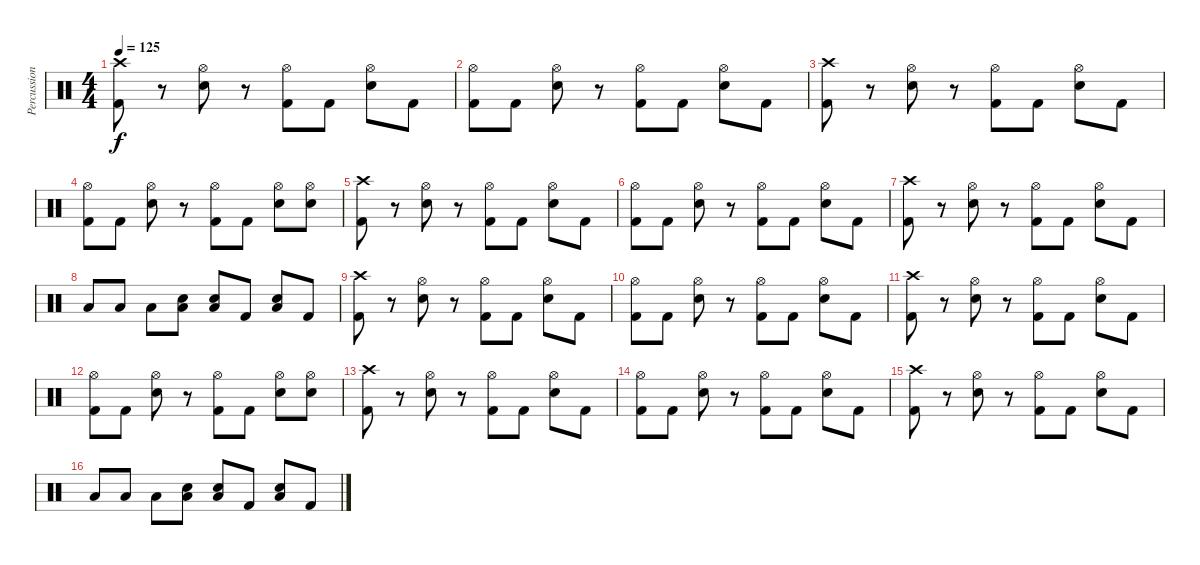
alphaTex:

\track ("Percussion" "Percussion") {instrument percussion}
\staff {score}
\articulation defaults
\ts (4 4)
\tempo 125
\clef neutral
\ks c
("Crash high (hit)" "Kick (hit) 2").8{dy f} r.8 ("Hi-Hat (open)" "Snare (hit) 2").8 r.8 ("Hi-Hat (open)" "Kick (hit) 2").8 "Kick (hit) 2".8 ("Hi-Hat (open)" "Snare (hit) 2").8 "Kick (hit) 2".8 |
("Hi-Hat (open)" "Kick (hit) 2").8 "Kick (hit) 2".8 ("Hi-Hat (open)" "Snare (hit) 2").8 r.8 ("Hi-Hat (open)" "Kick (hit) 2").8 "Kick (hit) 2".8 ("Hi-Hat (open)" "Snare (hit) 2").8 "Kick (hit) 2".8 |
("Crash high (hit)" "Kick (hit) 2").8 r.8 ("Hi-Hat (open)" "Snare (hit) 2").8 r.8 ("Hi-Hat (open)" "Kick (hit) 2").8 "Kick (hit) 2".8 ("Hi-Hat (open)" "Snare (hit) 2").8 "Kick (hit) 2".8 |
("Hi-Hat (open)" "Kick (hit) 2").8 "Kick (hit) 2".8 ("Hi-Hat (open)" "Snare (hit) 2").8 r.8 ("Hi-Hat (open)" "Kick (hit) 2").8 "Kick (hit) 2".8 ("Hi-Hat (open)" "Snare (hit) 2").8 ("Hi-Hat (open)" "Snare (hit) 2").8 |
("Crash high (hit)" "Kick (hit) 2").8 r.8 ("Hi-Hat (open)" "Snare (hit) 2").8 r.8 ("Hi-Hat (open)" "Kick (hit) 2").8 "Kick (hit) 2".8 ("Hi-Hat (open)" "Snare (hit) 2").8 "Kick (hit) 2".8 |
("Hi-Hat (open)" "Kick (hit) 2").8 "Kick (hit) 2".8 ("Hi-Hat (open)" "Snare (hit) 2").8 r.8 ("Hi-Hat (open)" "Kick (hit) 2").8 "Kick (hit) 2".8 ("Hi-Hat (open)" "Snare (hit) 2").8 "Kick (hit) 2".8 |
("Crash high (hit)" "Kick (hit) 2").8 r.8 ("Hi-Hat (open)" "Snare (hit) 2").8 r.8 ("Hi-Hat (open)" "Kick (hit) 2").8 "Kick (hit) 2".8 ("Hi-Hat (open)" "Snare (hit) 2").8 "Kick (hit) 2".8 |
"Low Floor Tom (hit)".8 "Low Floor Tom (hit)".8 "Low Floor Tom (hit)".8 ("Low Floor Tom (hit)" "Snare (hit) 2").8 ("Low Floor Tom (hit)" "Snare (hit) 2").8 "Kick (hit) 2".8 ("Low Floor Tom (hit)" "Snare (hit) 2").8 "Kick (hit) 2".8 |
("Crash high (hit)" "Kick (hit) 2").8 r.8 ("Hi-Hat (open)" "Snare (hit) 2").8 r.8 ("Hi-Hat (open)" "Kick (hit) 2").8 "Kick (hit) 2".8 ("Hi-Hat (open)" "Snare (hit) 2").8 "Kick (hit) 2".8 |
("Hi-Hat (open)" "Kick (hit) 2").8 "Kick (hit) 2".8 ("Hi-Hat (open)" "Snare (hit) 2").8 r.8 ("Hi-Hat (open)" "Kick (hit) 2").8 "Kick (hit) 2".8 ("Hi-Hat (open)" "Snare (hit) 2").8 "Kick (hit) 2".8 |
("Crash high (hit)" "Kick (hit) 2").8 r.8 ("Hi-Hat (open)" "Snare (hit) 2").8 r.8 ("Hi-Hat (open)" "Kick (hit) 2").8 "Kick (hit) 2".8 ("Hi-Hat (open)" "Snare (hit) 2").8 "Kick (hit) 2".8 |
("Hi-Hat (open)" "Kick (hit) 2").8 "Kick (hit) 2".8 ("Hi-Hat (open)" "Snare (hit) 2").8 r.8 ("Hi-Hat (open)" "Kick (hit) 2").8 "Kick (hit) 2".8 ("Hi-Hat (open)" "Snare (hit) 2").8 ("Hi-Hat (open)" "Snare (hit) 2").8 |
("Crash high (hit)" "Kick (hit) 2").8 r.8 ("Hi-Hat (open)" "Snare (hit) 2").8 r.8 ("Hi-Hat (open)" "Kick (hit) 2").8 "Kick (hit) 2".8 ("Hi-Hat (open)" "Snare (hit) 2").8 "Kick (hit) 2".8 |
("Hi-Hat (open)" "Kick (hit) 2").8 "Kick (hit) 2".8 ("Hi-Hat (open)" "Snare (hit) 2").8 r.8 ("Hi-Hat (open)" "Kick (hit) 2").8 "Kick (hit) 2".8 ("Hi-Hat (open)" "Snare (hit) 2").8 "Kick (hit) 2".8 |
("Crash high (hit)" "Kick (hit) 2").8 r.8 ("Hi-Hat (open)" "Snare (hit) 2").8 r.8 ("Hi-Hat (open)" "Kick (hit) 2").8 "Kick (hit) 2".8 ("Hi-Hat (open)" "Snare (hit) 2").8 "Kick (hit) 2".8 |
"Low Floor Tom (hit)".8 "Low Floor Tom (hit)".8 "Low Floor Tom (hit)".8 ("Low Floor Tom (hit)" "Snare (hit) 2").8 ("Low Floor Tom (hit)" "Snare (hit) 2").8 "Kick (hit) 2".8 ("Low Floor Tom (hit)" "Snare (hit) 2").8 "Kick (hit) 2".8
